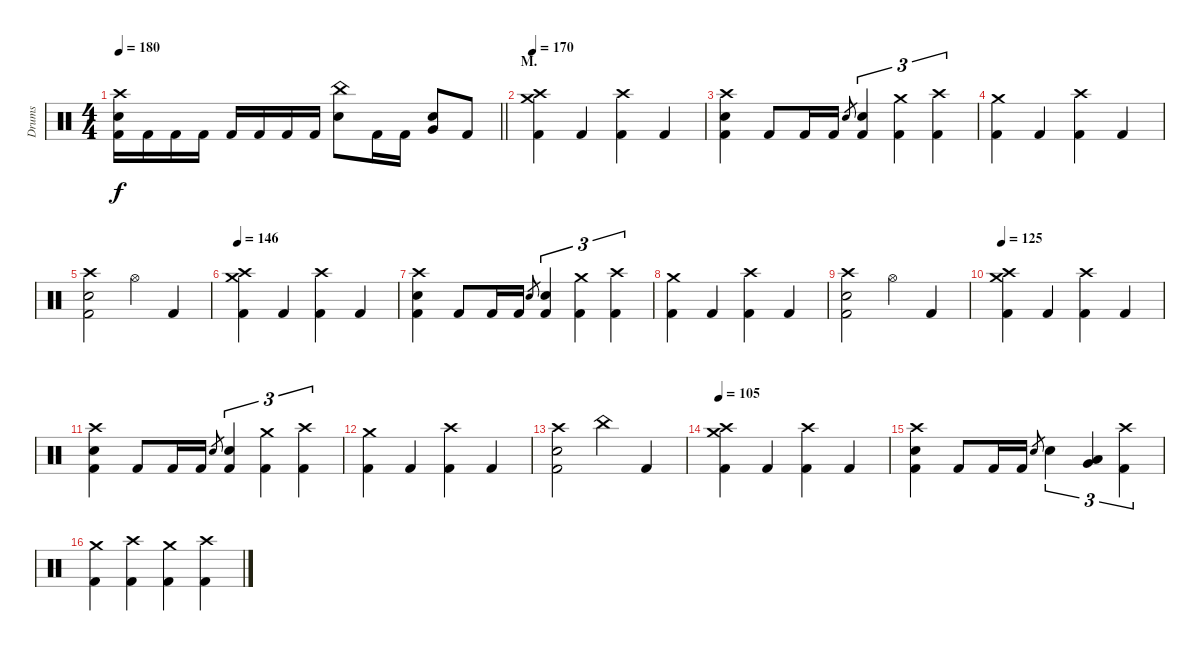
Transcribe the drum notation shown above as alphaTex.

\track ("Drums" "Drums") {instrument percussion}
\staff {score}
\articulation defaults
\ts (4 4)
\tempo 180
\clef neutral
\barLineRight lightlight
\ks c
("Crash high (hit)" "Electric Snare (hit)" "Kick (hit) 2").16{dy f} "Kick (hit) 2".16 "Kick (hit) 2".16 "Kick (hit) 2".16 "Kick (hit) 2".16 "Kick (hit) 2".16 "Kick (hit) 2".16 "Kick (hit) 2".16 ("China (hit)" "Electric Snare (hit)").8 "Kick (hit) 2".16 "Kick (hit) 2".16 ("Electric Snare (hit)" "Very Low Tom (hit)").8{bu 120} "Kick (hit) 2".8 |
\section ("" "M.")
\tempo 170
("Crash medium (hit)" "Crash high (hit)" "Kick (hit) 2").4 "Kick (hit) 2".4 ("Crash high (hit)" "Kick (hit) 2").4 "Kick (hit) 2".4 |
("Crash high (hit)" "Electric Snare (hit)" "Kick (hit) 2").4 "Kick (hit) 2".8 "Kick (hit) 2".16 "Kick (hit) 2".16 "Electric Snare (hit)".8{gr} ("Electric Snare (hit)" "Kick (hit) 2").4{tu (3 2)} ("Crash medium (hit)" "Kick (hit) 2").4{tu (3 2)} ("Crash high (hit)" "Kick (hit) 2").4{tu (3 2)} |
("Crash medium (hit)" "Kick (hit) 2").4 "Kick (hit) 2".4 ("Crash high (hit)" "Kick (hit) 2").4 "Kick (hit) 2".4 |
("Crash high (hit)" "Electric Snare (hit)" "Kick (hit) 2").2 "Hi-Hat (open)".4 "Kick (hit) 2".4 |
\tempo 146
("Crash medium (hit)" "Crash high (hit)" "Kick (hit) 2").4 "Kick (hit) 2".4 ("Crash high (hit)" "Kick (hit) 2").4 "Kick (hit) 2".4 |
("Crash high (hit)" "Electric Snare (hit)" "Kick (hit) 2").4 "Kick (hit) 2".8 "Kick (hit) 2".16 "Kick (hit) 2".16 "Electric Snare (hit)".8{gr} ("Electric Snare (hit)" "Kick (hit) 2").4{tu (3 2)} ("Crash medium (hit)" "Kick (hit) 2").4{tu (3 2)} ("Crash high (hit)" "Kick (hit) 2").4{tu (3 2)} |
("Crash medium (hit)" "Kick (hit) 2").4 "Kick (hit) 2".4 ("Crash high (hit)" "Kick (hit) 2").4 "Kick (hit) 2".4 |
("Crash high (hit)" "Electric Snare (hit)" "Kick (hit) 2").2 "Hi-Hat (open)".4 "Kick (hit) 2".4 |
\tempo 125
("Crash medium (hit)" "Crash high (hit)" "Kick (hit) 2").4 "Kick (hit) 2".4 ("Crash high (hit)" "Kick (hit) 2").4 "Kick (hit) 2".4 |
("Crash high (hit)" "Electric Snare (hit)" "Kick (hit) 2").4 "Kick (hit) 2".8 "Kick (hit) 2".16 "Kick (hit) 2".16 "Electric Snare (hit)".8{gr} ("Electric Snare (hit)" "Kick (hit) 2").4{tu (3 2)} ("Crash medium (hit)" "Kick (hit) 2").4{tu (3 2)} ("Crash high (hit)" "Kick (hit) 2").4{tu (3 2)} |
("Crash medium (hit)" "Kick (hit) 2").4 "Kick (hit) 2".4 ("Crash high (hit)" "Kick (hit) 2").4 "Kick (hit) 2".4 |
("Crash high (hit)" "Electric Snare (hit)" "Kick (hit) 2").2 "China (hit)".4 "Kick (hit) 2".4 |
\tempo 105
("Crash medium (hit)" "Crash high (hit)" "Kick (hit) 2").4 "Kick (hit) 2".4 ("Crash high (hit)" "Kick (hit) 2").4 "Kick (hit) 2".4 |
("Crash high (hit)" "Electric Snare (hit)" "Kick (hit) 2").4 "Kick (hit) 2".8 "Kick (hit) 2".16 "Kick (hit) 2".16 "Electric Snare (hit)".8{gr} "Electric Snare (hit)".4{tu (3 2)} ("Low Tom (hit)" "Very Low Tom (hit)").4{tu (3 2) bu 60} ("Crash high (hit)" "Kick (hit) 2").4{tu (3 2)} |
("Crash medium (hit)" "Kick (hit) 2").4 ("Crash high (hit)" "Kick (hit) 2").4 ("Crash medium (hit)" "Kick (hit) 2").4 ("Crash high (hit)" "Kick (hit) 2").4
